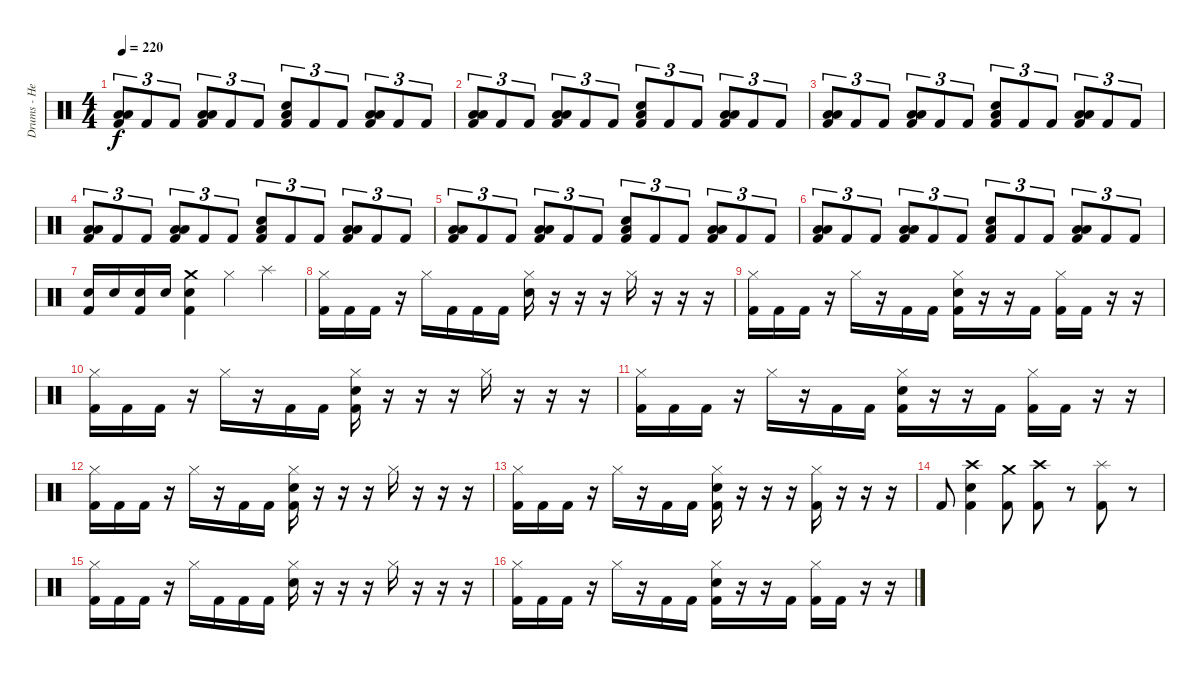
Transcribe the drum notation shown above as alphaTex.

\track ("Drums - Hellhammer" "Drums - He") {instrument percussion}
\staff {score}
\articulation defaults
\ts (4 4)
\tempo 220
\clef neutral
\ks c
("Low Floor Tom (hit)" "Low Tom (hit)" "Kick (hit) 2").8{tu (3 2) dy f} "Kick (hit) 2".8{tu (3 2)} "Kick (hit) 2".8{tu (3 2)} ("Low Floor Tom (hit)" "Low Tom (hit)" "Kick (hit) 2").8{tu (3 2)} "Kick (hit) 2".8{tu (3 2)} "Kick (hit) 2".8{tu (3 2)} ("Low Floor Tom (hit)" "Electric Snare (hit)" "Kick (hit) 2").8{tu (3 2)} "Kick (hit) 2".8{tu (3 2)} "Kick (hit) 2".8{tu (3 2)} ("Low Floor Tom (hit)" "Low Tom (hit)" "Kick (hit) 2").8{tu (3 2)} "Kick (hit) 2".8{tu (3 2)} "Kick (hit) 2".8{tu (3 2)} |
("Low Floor Tom (hit)" "Low Tom (hit)" "Kick (hit) 2").8{tu (3 2)} "Kick (hit) 2".8{tu (3 2)} "Kick (hit) 2".8{tu (3 2)} ("Low Floor Tom (hit)" "Low Tom (hit)" "Kick (hit) 2").8{tu (3 2)} "Kick (hit) 2".8{tu (3 2)} "Kick (hit) 2".8{tu (3 2)} ("Low Floor Tom (hit)" "Electric Snare (hit)" "Kick (hit) 2").8{tu (3 2)} "Kick (hit) 2".8{tu (3 2)} "Kick (hit) 2".8{tu (3 2)} ("Low Floor Tom (hit)" "Low Tom (hit)" "Kick (hit) 2").8{tu (3 2)} "Kick (hit) 2".8{tu (3 2)} "Kick (hit) 2".8{tu (3 2)} |
("Low Floor Tom (hit)" "Low Tom (hit)" "Kick (hit) 2").8{tu (3 2)} "Kick (hit) 2".8{tu (3 2)} "Kick (hit) 2".8{tu (3 2)} ("Low Floor Tom (hit)" "Low Tom (hit)" "Kick (hit) 2").8{tu (3 2)} "Kick (hit) 2".8{tu (3 2)} "Kick (hit) 2".8{tu (3 2)} ("Low Floor Tom (hit)" "Electric Snare (hit)" "Kick (hit) 2").8{tu (3 2)} "Kick (hit) 2".8{tu (3 2)} "Kick (hit) 2".8{tu (3 2)} ("Low Floor Tom (hit)" "Low Tom (hit)" "Kick (hit) 2").8{tu (3 2)} "Kick (hit) 2".8{tu (3 2)} "Kick (hit) 2".8{tu (3 2)} |
("Low Floor Tom (hit)" "Low Tom (hit)" "Kick (hit) 2").8{tu (3 2)} "Kick (hit) 2".8{tu (3 2)} "Kick (hit) 2".8{tu (3 2)} ("Low Floor Tom (hit)" "Low Tom (hit)" "Kick (hit) 2").8{tu (3 2)} "Kick (hit) 2".8{tu (3 2)} "Kick (hit) 2".8{tu (3 2)} ("Low Floor Tom (hit)" "Electric Snare (hit)" "Kick (hit) 2").8{tu (3 2)} "Kick (hit) 2".8{tu (3 2)} "Kick (hit) 2".8{tu (3 2)} ("Low Floor Tom (hit)" "Low Tom (hit)" "Kick (hit) 2").8{tu (3 2)} "Kick (hit) 2".8{tu (3 2)} "Kick (hit) 2".8{tu (3 2)} |
("Low Floor Tom (hit)" "Low Tom (hit)" "Kick (hit) 2").8{tu (3 2)} "Kick (hit) 2".8{tu (3 2)} "Kick (hit) 2".8{tu (3 2)} ("Low Floor Tom (hit)" "Low Tom (hit)" "Kick (hit) 2").8{tu (3 2)} "Kick (hit) 2".8{tu (3 2)} "Kick (hit) 2".8{tu (3 2)} ("Low Floor Tom (hit)" "Electric Snare (hit)" "Kick (hit) 2").8{tu (3 2)} "Kick (hit) 2".8{tu (3 2)} "Kick (hit) 2".8{tu (3 2)} ("Low Floor Tom (hit)" "Low Tom (hit)" "Kick (hit) 2").8{tu (3 2)} "Kick (hit) 2".8{tu (3 2)} "Kick (hit) 2".8{tu (3 2)} |
("Low Floor Tom (hit)" "Low Tom (hit)" "Kick (hit) 2").8{tu (3 2)} "Kick (hit) 2".8{tu (3 2)} "Kick (hit) 2".8{tu (3 2)} ("Low Floor Tom (hit)" "Low Tom (hit)" "Kick (hit) 2").8{tu (3 2)} "Kick (hit) 2".8{tu (3 2)} "Kick (hit) 2".8{tu (3 2)} ("Low Floor Tom (hit)" "Electric Snare (hit)" "Kick (hit) 2").8{tu (3 2)} "Kick (hit) 2".8{tu (3 2)} "Kick (hit) 2".8{tu (3 2)} ("Low Floor Tom (hit)" "Low Tom (hit)" "Kick (hit) 2").8{tu (3 2)} "Kick (hit) 2".8{tu (3 2)} "Kick (hit) 2".8{tu (3 2)} |
("Electric Snare (hit)" "Kick (hit) 2").16 "Electric Snare (hit)".16 ("Electric Snare (hit)" "Kick (hit) 2").16 "Electric Snare (hit)".16 ("Crash medium (hit)" "Electric Snare (hit)" "Kick (hit) 2").4 "Hi-Hat (closed)".4 "Splash (hit)".4 |
("Hi-Hat (closed)" "Kick (hit) 2").16 "Kick (hit) 2".16 "Kick (hit) 2".16 r.16 "Hi-Hat (closed)".16 "Kick (hit) 2".16 "Kick (hit) 2".16 "Kick (hit) 2".16 ("Hi-Hat (closed)" "Electric Snare (hit)").16 r.16 r.16 r.16 "Hi-Hat (closed)".16 r.16 r.16 r.16 |
("Hi-Hat (closed)" "Kick (hit) 2").16 "Kick (hit) 2".16 "Kick (hit) 2".16 r.16 "Hi-Hat (closed)".16 r.16 "Kick (hit) 2".16 "Kick (hit) 2".16 ("Hi-Hat (closed)" "Electric Snare (hit)" "Kick (hit) 2").16 r.16 r.16 "Kick (hit) 2".16 ("Hi-Hat (closed)" "Kick (hit) 2").16 "Kick (hit) 2".16 r.16 r.16 |
("Hi-Hat (closed)" "Kick (hit) 2").16 "Kick (hit) 2".16 "Kick (hit) 2".16 r.16 "Hi-Hat (closed)".16 r.16 "Kick (hit) 2".16 "Kick (hit) 2".16 ("Hi-Hat (closed)" "Electric Snare (hit)" "Kick (hit) 2").16 r.16 r.16 r.16 "Hi-Hat (closed)".16 r.16 r.16 r.16 |
("Hi-Hat (closed)" "Kick (hit) 2").16 "Kick (hit) 2".16 "Kick (hit) 2".16 r.16 "Hi-Hat (closed)".16 r.16 "Kick (hit) 2".16 "Kick (hit) 2".16 ("Hi-Hat (closed)" "Electric Snare (hit)" "Kick (hit) 2").16 r.16 r.16 "Kick (hit) 2".16 ("Hi-Hat (closed)" "Kick (hit) 2").16 "Kick (hit) 2".16 r.16 r.16 |
("Hi-Hat (closed)" "Kick (hit) 2").16 "Kick (hit) 2".16 "Kick (hit) 2".16 r.16 "Hi-Hat (closed)".16 r.16 "Kick (hit) 2".16 "Kick (hit) 2".16 ("Hi-Hat (closed)" "Electric Snare (hit)" "Kick (hit) 2").16 r.16 r.16 r.16 "Hi-Hat (closed)".16 r.16 r.16 r.16 |
("Hi-Hat (closed)" "Kick (hit) 2").16 "Kick (hit) 2".16 "Kick (hit) 2".16 r.16 "Hi-Hat (closed)".16 r.16 "Kick (hit) 2".16 "Kick (hit) 2".16 ("Hi-Hat (closed)" "Electric Snare (hit)" "Kick (hit) 2").16 r.16 r.16 r.16 ("Hi-Hat (closed)" "Kick (hit) 2").16 r.16 r.16 r.16 |
"Kick (hit) 2".8 ("Crash high (hit)" "Electric Snare (hit)" "Kick (hit) 2").4 ("Crash medium (hit)" "Kick (hit) 2").8 ("Crash high (hit)" "Kick (hit) 2").8 r.8 ("Splash (hit)" "Kick (hit) 2").8 r.8 |
("Hi-Hat (closed)" "Kick (hit) 2").16 "Kick (hit) 2".16 "Kick (hit) 2".16 r.16 "Hi-Hat (closed)".16 "Kick (hit) 2".16 "Kick (hit) 2".16 "Kick (hit) 2".16 ("Hi-Hat (closed)" "Electric Snare (hit)").16 r.16 r.16 r.16 "Hi-Hat (closed)".16 r.16 r.16 r.16 |
("Hi-Hat (closed)" "Kick (hit) 2").16 "Kick (hit) 2".16 "Kick (hit) 2".16 r.16 "Hi-Hat (closed)".16 r.16 "Kick (hit) 2".16 "Kick (hit) 2".16 ("Hi-Hat (closed)" "Electric Snare (hit)" "Kick (hit) 2").16 r.16 r.16 "Kick (hit) 2".16 ("Hi-Hat (closed)" "Kick (hit) 2").16 "Kick (hit) 2".16 r.16 r.16
